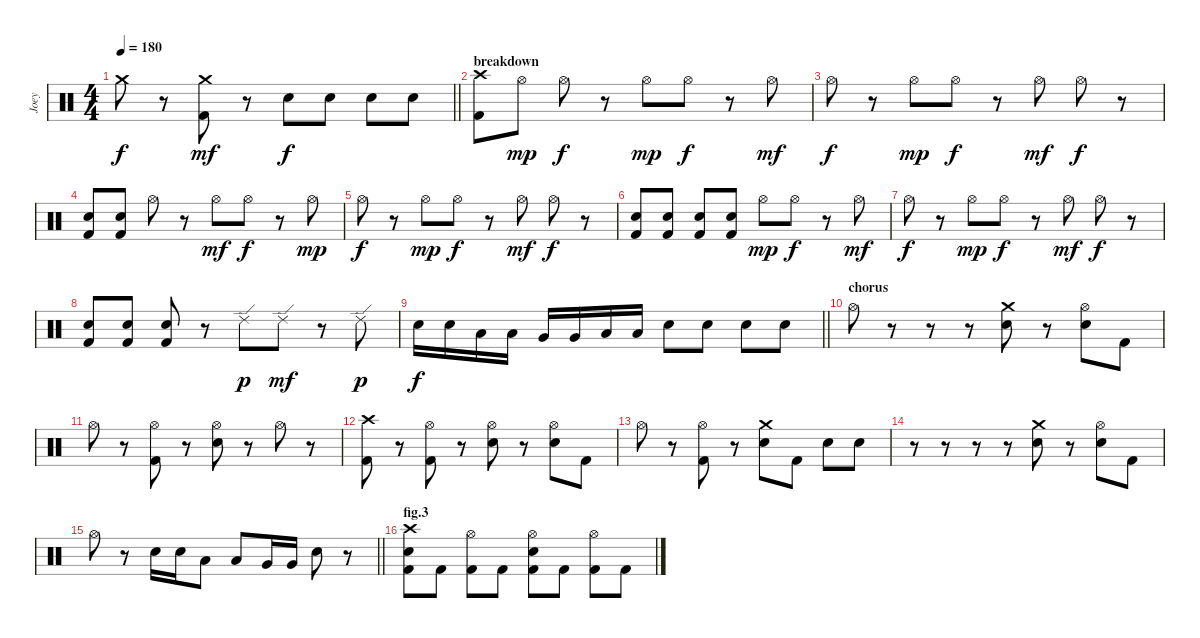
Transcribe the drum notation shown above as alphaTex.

\track ("Joey" "Joey") {instrument percussion}
\staff {score}
\articulation defaults
\ts (4 4)
\tempo 180
\clef neutral
\barLineRight lightlight
\ks c "Crash medium (hit)".8{dy f}
r.8 ("Crash medium (hit)" "Kick (hit) 2").8{dy mf} r.8 "Electric Snare (hit)".8{dy f} "Electric Snare (hit)".8 "Electric Snare (hit)".8 "Electric Snare (hit)".8 |
\section ("" "breakdown")
("Crash high (hit)" "Kick (hit) 2").8 "Hi-Hat (open)".8{dy mp} "Hi-Hat (open)".8{dy f} r.8 "Hi-Hat (open)".8{dy mp} "Hi-Hat (open)".8{dy f} r.8 "Hi-Hat (open)".8{dy mf} |
"Hi-Hat (open)".8{dy f} r.8 "Hi-Hat (open)".8{dy mp} "Hi-Hat (open)".8{dy f} r.8 "Hi-Hat (open)".8{dy mf} "Hi-Hat (open)".8{dy f} r.8 |
("Electric Snare (hit)" "Kick (hit) 2").8 ("Electric Snare (hit)" "Kick (hit) 2").8 "Hi-Hat (open)".8 r.8 "Hi-Hat (open)".8{dy mf} "Hi-Hat (open)".8{dy f} r.8 "Hi-Hat (open)".8{dy mp} |
"Hi-Hat (open)".8{dy f} r.8 "Hi-Hat (open)".8{dy mp} "Hi-Hat (open)".8{dy f} r.8 "Hi-Hat (open)".8{dy mf} "Hi-Hat (open)".8{dy f} r.8 |
("Electric Snare (hit)" "Kick (hit) 2").8 ("Electric Snare (hit)" "Kick (hit) 2").8 ("Electric Snare (hit)" "Kick (hit) 2").8 ("Electric Snare (hit)" "Kick (hit) 2").8 "Hi-Hat (open)".8{dy mp} "Hi-Hat (open)".8{dy f} r.8 "Hi-Hat (open)".8{dy mf} |
"Hi-Hat (open)".8{dy f} r.8 "Hi-Hat (open)".8{dy mp} "Hi-Hat (open)".8{dy f} r.8 "Hi-Hat (open)".8{dy mf} "Hi-Hat (open)".8{dy f} r.8 |
("Electric Snare (hit)" "Kick (hit) 2").8 ("Electric Snare (hit)" "Kick (hit) 2").8 ("Electric Snare (hit)" "Kick (hit) 2").8 r.8 "Ride (edge) 2".8{dy p} "Ride (edge) 2".8{dy mf} r.8 "Ride (edge) 2".8{dy p} |
\barLineRight lightlight "Electric Snare (hit)".16{dy f} "Electric Snare (hit)".16 "Low Tom (hit)".16 "Low Tom (hit)".16 "Very Low Tom (hit)".16 "Very Low Tom (hit)".16 "Low Floor Tom (hit)".16 "Low Floor Tom (hit)".16 "Electric Snare (hit)".8 "Electric Snare (hit)".8 "Electric Snare (hit)".8 "Electric Snare (hit)".8
|
\section ("" "chorus")
"Hi-Hat (open)".8 r.8 r.8 r.8 ("Crash medium (hit)" "Electric Snare (hit)").8 r.8 ("Hi-Hat (open)" "Electric Snare (hit)").8 "Kick (hit) 2".8 |
"Hi-Hat (open)".8 r.8 ("Hi-Hat (open)" "Kick (hit) 2").8 r.8 ("Hi-Hat (open)" "Electric Snare (hit)").8 r.8 "Hi-Hat (open)".8 r.8 |
("Crash high (hit)" "Kick (hit) 2").8 r.8 ("Hi-Hat (open)" "Kick (hit) 2").8 r.8 ("Hi-Hat (open)" "Electric Snare (hit)").8 r.8 ("Hi-Hat (open)" "Electric Snare (hit)").8 "Kick (hit) 2".8 |
"Hi-Hat (open)".8 r.8 ("Hi-Hat (open)" "Kick (hit) 2").8 r.8 ("Crash medium (hit)" "Electric Snare (hit)").8 "Kick (hit) 2".8 "Electric Snare (hit)".8 "Electric Snare (hit)".8 |
r.8 r.8 r.8 r.8 ("Crash medium (hit)" "Electric Snare (hit)").8 r.8 ("Hi-Hat (open)" "Electric Snare (hit)").8 "Kick (hit) 2".8 |
\barLineRight lightlight "Hi-Hat (open)".8
r.8 "Electric Snare (hit)".16 "Electric Snare (hit)".16 "Low Tom (hit)".8 "Low Tom (hit)".8 "Very Low Tom (hit)".16 "Very Low Tom (hit)".16 "Electric Snare (hit)".8 r.8 |
\section ("" "fig.3")
("Crash high (hit)" "Electric Snare (hit)" "Kick (hit) 2").8 "Kick (hit) 2".8 ("Hi-Hat (open)" "Kick (hit) 2").8 "Kick (hit) 2".8 ("Hi-Hat (open)" "Electric Snare (hit)" "Kick (hit) 2").8 "Kick (hit) 2".8 ("Hi-Hat (open)" "Kick (hit) 2").8 "Kick (hit) 2".8
